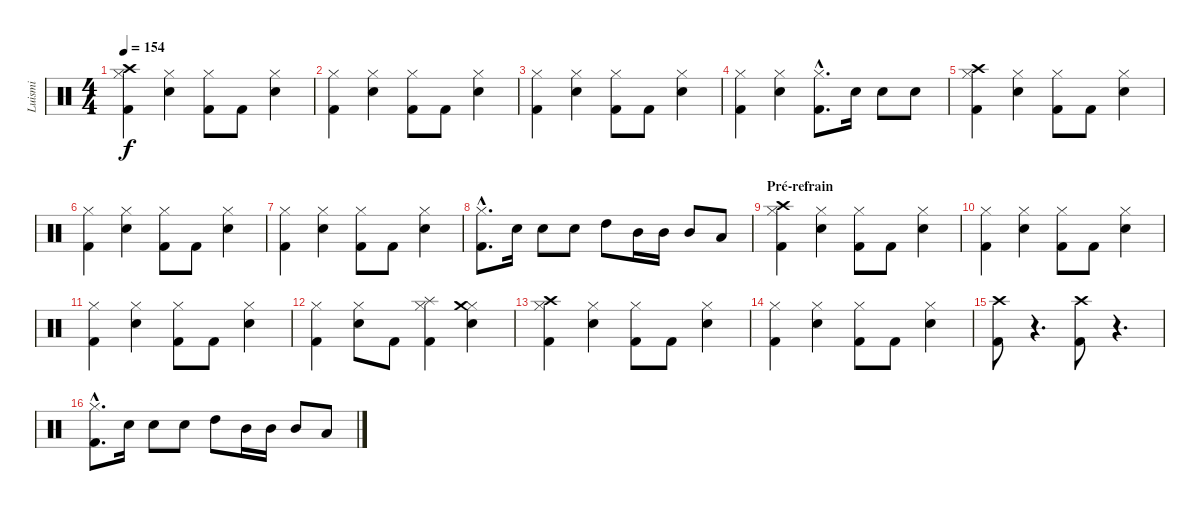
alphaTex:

\track ("Luismi" "Luismi") {instrument percussion}
\staff {score}
\articulation defaults
\ts (4 4)
\tempo 154
\clef neutral
\ks c
("Kick (hit) 2" "Hi-Hat (closed)" "Crash high (hit)").4{dy f} ("Snare (hit) 2" "Hi-Hat (closed)").4 ("Kick (hit) 2" "Hi-Hat (closed)").8 "Kick (hit) 2".8 ("Snare (hit) 2" "Hi-Hat (closed)").4 |
("Kick (hit) 2" "Hi-Hat (closed)").4 ("Snare (hit) 2" "Hi-Hat (closed)").4 ("Kick (hit) 2" "Hi-Hat (closed)").8 "Kick (hit) 2".8 ("Snare (hit) 2" "Hi-Hat (closed)").4 |
("Kick (hit) 2" "Hi-Hat (closed)").4 ("Snare (hit) 2" "Hi-Hat (closed)").4 ("Kick (hit) 2" "Hi-Hat (closed)").8 "Kick (hit) 2".8 ("Snare (hit) 2" "Hi-Hat (closed)").4 |
("Kick (hit) 2" "Hi-Hat (closed)").4 ("Snare (hit) 2" "Hi-Hat (closed)").4 ("Kick (hit) 2"{hac} "Hi-Hat (closed)"{hac}).8{d} "Snare (hit) 2".16 "Snare (hit) 2".8 "Snare (hit) 2".8 |
("Kick (hit) 2" "Hi-Hat (closed)" "Crash high (hit)").4 ("Snare (hit) 2" "Hi-Hat (closed)").4 ("Kick (hit) 2" "Hi-Hat (closed)").8 "Kick (hit) 2".8 ("Snare (hit) 2" "Hi-Hat (closed)").4 |
("Kick (hit) 2" "Hi-Hat (closed)").4 ("Snare (hit) 2" "Hi-Hat (closed)").4 ("Kick (hit) 2" "Hi-Hat (closed)").8 "Kick (hit) 2".8 ("Snare (hit) 2" "Hi-Hat (closed)").4 |
("Kick (hit) 2" "Hi-Hat (closed)").4 ("Snare (hit) 2" "Hi-Hat (closed)").4 ("Kick (hit) 2" "Hi-Hat (closed)").8 "Kick (hit) 2".8 ("Snare (hit) 2" "Hi-Hat (closed)").4 |
("Kick (hit) 2"{hac} "Hi-Hat (closed)"{hac}).8{d} "Snare (hit) 2".16 "Snare (hit) 2".8 "Snare (hit) 2".8 "High Tom (hit)".8 "Mid Tom (hit)".16 "Mid Tom (hit)".16 "Mid Tom (hit)".8 "Low Tom (hit)".8 |
\section ("" "Pré-refrain")
("Kick (hit) 2" "Hi-Hat (closed)" "Crash high (hit)").4 ("Snare (hit) 2" "Hi-Hat (closed)").4 ("Kick (hit) 2" "Hi-Hat (closed)").8 "Kick (hit) 2".8 ("Snare (hit) 2" "Hi-Hat (closed)").4 |
("Kick (hit) 2" "Hi-Hat (closed)").4 ("Snare (hit) 2" "Hi-Hat (closed)").4 ("Kick (hit) 2" "Hi-Hat (closed)").8 "Kick (hit) 2".8 ("Snare (hit) 2" "Hi-Hat (closed)").4 |
("Kick (hit) 2" "Hi-Hat (closed)").4 ("Snare (hit) 2" "Hi-Hat (closed)").4 ("Kick (hit) 2" "Hi-Hat (closed)").8 "Kick (hit) 2".8 ("Snare (hit) 2" "Hi-Hat (closed)").4 |
("Kick (hit) 2" "Hi-Hat (closed)").4 ("Snare (hit) 2" "Hi-Hat (closed)").8 "Kick (hit) 2".8 ("Kick (hit) 2" "Hi-Hat (closed)" "Splash (hit)").4 ("Snare (hit) 2" "Hi-Hat (closed)" "Crash medium (hit)").4 |
("Kick (hit) 2" "Hi-Hat (closed)" "Crash high (hit)").4 ("Snare (hit) 2" "Hi-Hat (closed)").4 ("Kick (hit) 2" "Hi-Hat (closed)").8 "Kick (hit) 2".8 ("Snare (hit) 2" "Hi-Hat (closed)").4 |
("Kick (hit) 2" "Hi-Hat (closed)").4 ("Snare (hit) 2" "Hi-Hat (closed)").4 ("Kick (hit) 2" "Hi-Hat (closed)").8 "Kick (hit) 2".8 ("Snare (hit) 2" "Hi-Hat (closed)").4 |
("Kick (hit) 2" "Crash high (hit)").8 r.4{d} ("Kick (hit) 2" "Crash high (hit)").8 r.4{d} |
("Kick (hit) 2"{hac} "Hi-Hat (closed)"{hac}).8{d} "Snare (hit) 2".16 "Snare (hit) 2".8 "Snare (hit) 2".8 "High Tom (hit)".8 "Mid Tom (hit)".16 "Mid Tom (hit)".16 "Mid Tom (hit)".8 "Low Tom (hit)".8
